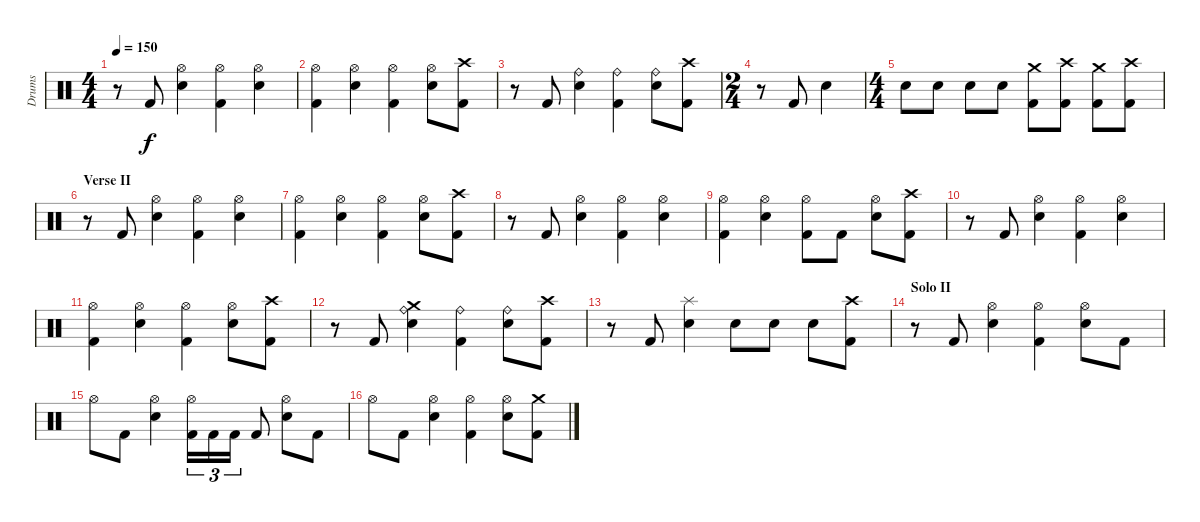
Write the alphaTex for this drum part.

\track ("Drums" "Drums") {instrument percussion}
\staff {score}
\articulation defaults
\ts (4 4)
\tempo 150
\clef neutral
\ks c
r.8{dy f} "Kick (hit) 2".8 ("Hi-Hat (open)" "Electric Snare (hit)").4 ("Hi-Hat (open)" "Kick (hit) 2").4 ("Hi-Hat (open)" "Electric Snare (hit)").4 |
("Hi-Hat (open)" "Kick (hit) 2").4 ("Hi-Hat (open)" "Electric Snare (hit)").4 ("Hi-Hat (open)" "Kick (hit) 2").4 ("Hi-Hat (open)" "Electric Snare (hit)").8 ("Crash high (hit)" "Kick (hit) 2").8 |
r.8 "Kick (hit) 2".8 ("Ride (bell)" "Electric Snare (hit)").4 ("Ride (bell)" "Kick (hit) 2").4 ("Ride (bell)" "Electric Snare (hit)").8 ("Crash high (hit)" "Kick (hit) 2").8 |
\ts (2 4)
r.8 "Kick (hit) 2".8 "Electric Snare (hit)".4 |
\ts (4 4)
"Electric Snare (hit)".8 "Electric Snare (hit)".8 "Electric Snare (hit)".8 "Electric Snare (hit)".8 ("Kick (hit) 2" "Crash medium (hit)").8 ("Kick (hit) 2" "Crash high (hit)").8 ("Kick (hit) 2" "Crash medium (hit)").8 ("Crash high (hit)" "Kick (hit) 2").8 |
\section ("" "Verse II")
r.8 "Kick (hit) 2".8 ("Hi-Hat (open)" "Electric Snare (hit)").4 ("Hi-Hat (open)" "Kick (hit) 2").4 ("Hi-Hat (open)" "Electric Snare (hit)").4 |
("Hi-Hat (open)" "Kick (hit) 2").4 ("Hi-Hat (open)" "Electric Snare (hit)").4 ("Hi-Hat (open)" "Kick (hit) 2").4 ("Hi-Hat (open)" "Electric Snare (hit)").8 ("Crash high (hit)" "Kick (hit) 2").8 |
r.8 "Kick (hit) 2".8 ("Hi-Hat (open)" "Electric Snare (hit)").4 ("Hi-Hat (open)" "Kick (hit) 2").4 ("Hi-Hat (open)" "Electric Snare (hit)").4 |
("Hi-Hat (open)" "Kick (hit) 2").4 ("Hi-Hat (open)" "Electric Snare (hit)").4 ("Hi-Hat (open)" "Kick (hit) 2").8 "Kick (hit) 2".8 ("Hi-Hat (open)" "Electric Snare (hit)").8 ("Crash high (hit)" "Kick (hit) 2").8 |
r.8 "Kick (hit) 2".8 ("Hi-Hat (open)" "Electric Snare (hit)").4 ("Hi-Hat (open)" "Kick (hit) 2").4 ("Hi-Hat (open)" "Electric Snare (hit)").4 |
("Hi-Hat (open)" "Kick (hit) 2").4 ("Hi-Hat (open)" "Electric Snare (hit)").4 ("Hi-Hat (open)" "Kick (hit) 2").4 ("Hi-Hat (open)" "Electric Snare (hit)").8 ("Crash high (hit)" "Kick (hit) 2").8 |
r.8 "Kick (hit) 2".8 ("Ride (bell)" "Electric Snare (hit)" "Crash medium (hit)").4 ("Ride (bell)" "Kick (hit) 2").4 ("Ride (bell)" "Electric Snare (hit)").8 ("Crash high (hit)" "Kick (hit) 2").8 |
r.8 "Kick (hit) 2".8 ("Electric Snare (hit)" "Splash (hit)").4 "Electric Snare (hit)".8 "Electric Snare (hit)".8 "Electric Snare (hit)".8 ("Kick (hit) 2" "Crash high (hit)").8 |
\section ("" "Solo II")
r.8 "Kick (hit) 2".8 ("Hi-Hat (open)" "Electric Snare (hit)").4 ("Hi-Hat (open)" "Kick (hit) 2").4 ("Hi-Hat (open)" "Electric Snare (hit)").8 "Kick (hit) 2".8 |
"Hi-Hat (open)".8 "Kick (hit) 2".8 ("Hi-Hat (open)" "Electric Snare (hit)").4 ("Hi-Hat (open)" "Kick (hit) 2").16{tu (3 2)} "Kick (hit) 2".16{tu (3 2)} "Kick (hit) 2".16{tu (3 2)} "Kick (hit) 2".8 ("Hi-Hat (open)" "Electric Snare (hit)").8 "Kick (hit) 2".8 |
"Hi-Hat (open)".8 "Kick (hit) 2".8 ("Hi-Hat (open)" "Electric Snare (hit)").4 ("Hi-Hat (open)" "Kick (hit) 2").4 ("Hi-Hat (open)" "Electric Snare (hit)").8 ("Crash medium (hit)" "Kick (hit) 2").8
